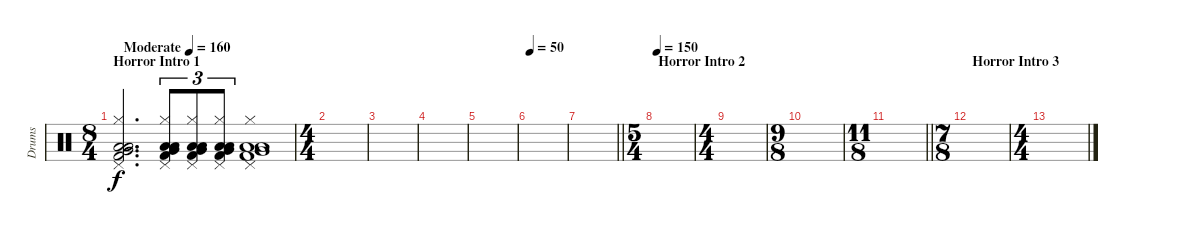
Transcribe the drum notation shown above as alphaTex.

\track ("Drums" "Drums") {instrument percussion}
\staff {score}
\articulation defaults
\ts (8 4)
\section ("" "Horror Intro 1")
\tempo (160 "Moderate")
\clef neutral
\ks c
("Low Tom (hit)" "Pedal Hi-Hat (hit)" "Very Low Tom (hit)" "Hi-Hat (closed)" "Low Floor Tom (hit)" "Kick (hit) 2").2{d dy f} ("Low Tom (hit)" "Pedal Hi-Hat (hit)" "Very Low Tom (hit)" "Hi-Hat (closed)" "Low Floor Tom (hit)" "Kick (hit) 2").8{tu (3 2)} ("Low Tom (hit)" "Pedal Hi-Hat (hit)" "Very Low Tom (hit)" "Hi-Hat (closed)" "Low Floor Tom (hit)" "Kick (hit) 2").8{tu (3 2)} ("Low Tom (hit)" "Pedal Hi-Hat (hit)" "Very Low Tom (hit)" "Hi-Hat (closed)" "Low Floor Tom (hit)" "Kick (hit) 2").8{tu (3 2)} ("Low Tom (hit)" "Pedal Hi-Hat (hit)" "Very Low Tom (hit)" "Hi-Hat (closed)" "Low Floor Tom (hit)" "Kick (hit) 2").1 |
\ts (4 4)
|
|
|
|
\tempo 50
|
\barLineRight lightlight
|
\ts (5 4)
\section ("" "Horror Intro 2")
\tempo 150
|
\ts (4 4)
|
\ts (9 8)
|
\ts (11 8)
\barLineRight lightlight
|
\ts (7 8)
\section ("" "Horror Intro 3")
|
\ts (4 4)
